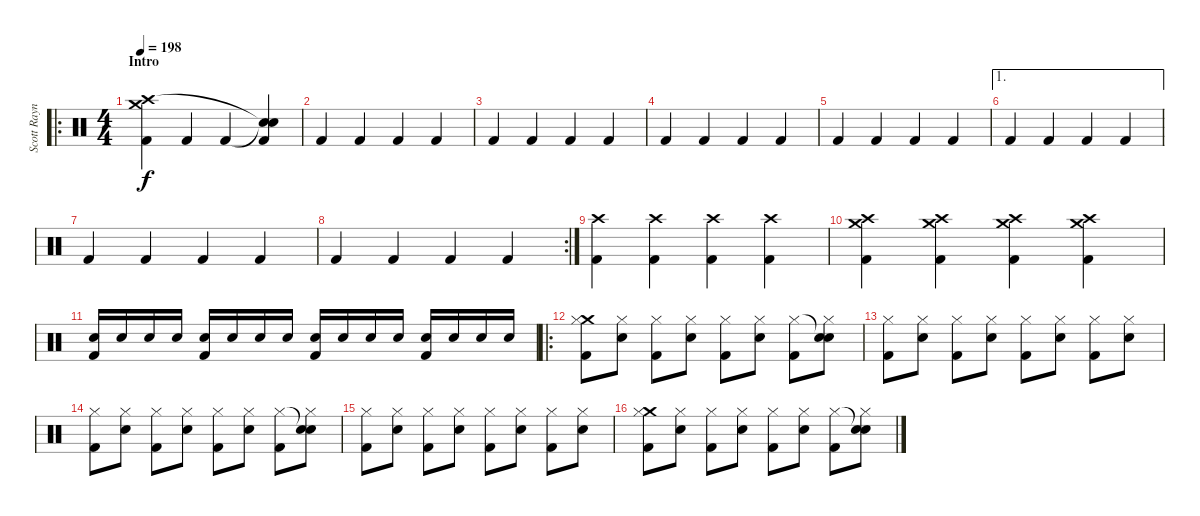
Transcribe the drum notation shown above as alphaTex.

\track ("Scott Raynor Drums" "Scott Rayn") {instrument percussion}
\staff {score}
\articulation defaults
\ro
\ts (4 4)
\section ("" "Intro")
\tempo 198
\clef neutral
\ks c
("Crash medium (hit)" "Crash high (hit)" "Kick (hit) 2").4{dy f} "Kick (hit) 2".4 "Kick (hit) 2".4 ("Snare (hit)"{t} "Snare (hit)"{t} "Kick (hit) 2").4 |
"Kick (hit) 2".4 "Kick (hit) 2".4 "Kick (hit) 2".4 "Kick (hit) 2".4 |
"Kick (hit) 2".4 "Kick (hit) 2".4 "Kick (hit) 2".4 "Kick (hit) 2".4 |
"Kick (hit) 2".4 "Kick (hit) 2".4 "Kick (hit) 2".4 "Kick (hit) 2".4 |
"Kick (hit) 2".4 "Kick (hit) 2".4 "Kick (hit) 2".4 "Kick (hit) 2".4 |
\ae 1 "Kick (hit) 2".4 "Kick (hit) 2".4 "Kick (hit) 2".4 "Kick (hit) 2".4
|
"Kick (hit) 2".4 "Kick (hit) 2".4 "Kick (hit) 2".4 "Kick (hit) 2".4 |
\rc 2 "Kick (hit) 2".4 "Kick (hit) 2".4 "Kick (hit) 2".4 "Kick (hit) 2".4
|
("Crash high (hit)" "Kick (hit) 2").4 ("Crash high (hit)" "Kick (hit) 2").4 ("Crash high (hit)" "Kick (hit) 2").4 ("Crash high (hit)" "Kick (hit) 2").4 |
("Crash high (hit)" "Crash medium (hit)" "Kick (hit) 2").4 ("Crash high (hit)" "Crash medium (hit)" "Kick (hit) 2").4 ("Crash high (hit)" "Crash medium (hit)" "Kick (hit) 2").4 ("Crash high (hit)" "Crash medium (hit)" "Kick (hit) 2").4 |
("Electric Snare (hit)" "Kick (hit) 2").16 "Electric Snare (hit)".16 "Electric Snare (hit)".16 "Electric Snare (hit)".16 ("Electric Snare (hit)" "Kick (hit) 2").16 "Electric Snare (hit)".16 "Electric Snare (hit)".16 "Electric Snare (hit)".16 ("Electric Snare (hit)" "Kick (hit) 2").16 "Electric Snare (hit)".16 "Electric Snare (hit)".16 "Electric Snare (hit)".16 ("Electric Snare (hit)" "Kick (hit) 2").16 "Electric Snare (hit)".16 "Electric Snare (hit)".16 "Electric Snare (hit)".16 |
\ro
("Crash medium (hit)" "Hi-Hat (closed)" "Kick (hit) 2").8 ("Hi-Hat (closed)" "Electric Snare (hit)").8 ("Hi-Hat (closed)" "Kick (hit) 2").8 ("Hi-Hat (closed)" "Electric Snare (hit)").8 ("Hi-Hat (closed)" "Kick (hit) 2").8 ("Hi-Hat (closed)" "Electric Snare (hit)").8 ("Hi-Hat (closed)" "Kick (hit) 2").8 ("Snare (hit)"{t} "Hi-Hat (closed)" "Electric Snare (hit)").8 |
("Hi-Hat (closed)" "Kick (hit) 2").8 ("Hi-Hat (closed)" "Electric Snare (hit)").8 ("Hi-Hat (closed)" "Kick (hit) 2").8 ("Hi-Hat (closed)" "Electric Snare (hit)").8 ("Hi-Hat (closed)" "Kick (hit) 2").8 ("Hi-Hat (closed)" "Electric Snare (hit)").8 ("Hi-Hat (closed)" "Kick (hit) 2").8 ("Hi-Hat (closed)" "Electric Snare (hit)").8 |
("Hi-Hat (closed)" "Kick (hit) 2").8 ("Hi-Hat (closed)" "Electric Snare (hit)").8 ("Hi-Hat (closed)" "Kick (hit) 2").8 ("Hi-Hat (closed)" "Electric Snare (hit)").8 ("Hi-Hat (closed)" "Kick (hit) 2").8 ("Hi-Hat (closed)" "Electric Snare (hit)").8 ("Hi-Hat (closed)" "Kick (hit) 2").8 ("Snare (hit)"{t} "Hi-Hat (closed)" "Electric Snare (hit)").8 |
("Hi-Hat (closed)" "Kick (hit) 2").8 ("Hi-Hat (closed)" "Electric Snare (hit)").8 ("Hi-Hat (closed)" "Kick (hit) 2").8 ("Hi-Hat (closed)" "Electric Snare (hit)").8 ("Hi-Hat (closed)" "Kick (hit) 2").8 ("Hi-Hat (closed)" "Electric Snare (hit)").8 ("Hi-Hat (closed)" "Kick (hit) 2").8 ("Hi-Hat (closed)" "Electric Snare (hit)").8 |
("Crash medium (hit)" "Hi-Hat (closed)" "Kick (hit) 2").8 ("Hi-Hat (closed)" "Electric Snare (hit)").8 ("Hi-Hat (closed)" "Kick (hit) 2").8 ("Hi-Hat (closed)" "Electric Snare (hit)").8 ("Hi-Hat (closed)" "Kick (hit) 2").8 ("Hi-Hat (closed)" "Electric Snare (hit)").8 ("Hi-Hat (closed)" "Kick (hit) 2").8 ("Snare (hit)"{t} "Hi-Hat (closed)" "Electric Snare (hit)").8
